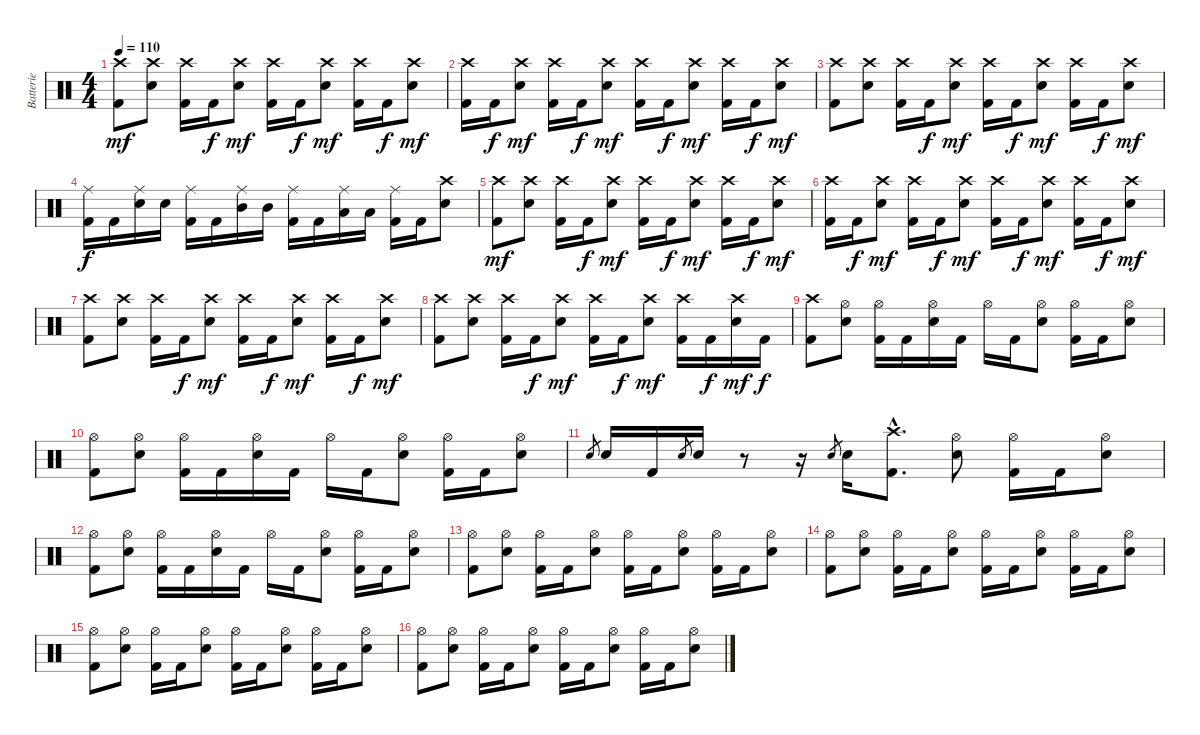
\track ("Batterie" "Batterie") {instrument percussion}
\staff {score}
\articulation defaults
\ts (4 4)
\tempo 110
\clef neutral
\ks c
("Crash high (hit)" "Kick (hit) 2").8{dy mf} ("Crash high (hit)" "Snare (hit) 2").8 ("Crash high (hit)" "Kick (hit) 2").16 "Kick (hit) 2".16{dy f} ("Crash high (hit)" "Snare (hit) 2").8{dy mf} ("Crash high (hit)" "Kick (hit) 2").16 "Kick (hit) 2".16{dy f} ("Crash high (hit)" "Snare (hit) 2").8{dy mf} ("Crash high (hit)" "Kick (hit) 2").16 "Kick (hit) 2".16{dy f} ("Crash high (hit)" "Snare (hit) 2").8{dy mf} |
("Crash high (hit)" "Kick (hit) 2").16 "Kick (hit) 2".16{dy f} ("Crash high (hit)" "Snare (hit) 2").8{dy mf} ("Crash high (hit)" "Kick (hit) 2").16 "Kick (hit) 2".16{dy f} ("Crash high (hit)" "Snare (hit) 2").8{dy mf} ("Crash high (hit)" "Kick (hit) 2").16 "Kick (hit) 2".16{dy f} ("Crash high (hit)" "Snare (hit) 2").8{dy mf} ("Crash high (hit)" "Kick (hit) 2").16 "Kick (hit) 2".16{dy f} ("Crash high (hit)" "Snare (hit) 2").8{dy mf} |
("Crash high (hit)" "Kick (hit) 2").8 ("Crash high (hit)" "Snare (hit) 2").8 ("Crash high (hit)" "Kick (hit) 2").16 "Kick (hit) 2".16{dy f} ("Crash high (hit)" "Snare (hit) 2").8{dy mf} ("Crash high (hit)" "Kick (hit) 2").16 "Kick (hit) 2".16{dy f} ("Crash high (hit)" "Snare (hit) 2").8{dy mf} ("Crash high (hit)" "Kick (hit) 2").16 "Kick (hit) 2".16{dy f} ("Crash high (hit)" "Snare (hit) 2").8{dy mf} |
("Ride (middle)" "Kick (hit) 2").16{dy f} "Kick (hit) 2".16 ("Ride (middle)" "Snare (hit) 2").16 "Snare (hit) 2".16 ("Ride (middle)" "Kick (hit) 2").16 "Kick (hit) 2".16 ("Ride (middle)" "Mid Tom (hit)").16 "Mid Tom (hit)".16 ("Ride (middle)" "Kick (hit) 2").16 "Kick (hit) 2".16 ("Ride (middle)" "Low Tom (hit)").16 "Low Tom (hit)".16 ("Ride (middle)" "Kick (hit) 2").16 "Kick (hit) 2".16 ("Crash high (hit)" "Snare (hit) 2").8 |
("Crash high (hit)" "Kick (hit) 2").8{dy mf} ("Crash high (hit)" "Snare (hit) 2").8 ("Crash high (hit)" "Kick (hit) 2").16 "Kick (hit) 2".16{dy f} ("Crash high (hit)" "Snare (hit) 2").8{dy mf} ("Crash high (hit)" "Kick (hit) 2").16 "Kick (hit) 2".16{dy f} ("Crash high (hit)" "Snare (hit) 2").8{dy mf} ("Crash high (hit)" "Kick (hit) 2").16 "Kick (hit) 2".16{dy f} ("Crash high (hit)" "Snare (hit) 2").8{dy mf} |
("Crash high (hit)" "Kick (hit) 2").16 "Kick (hit) 2".16{dy f} ("Crash high (hit)" "Snare (hit) 2").8{dy mf} ("Crash high (hit)" "Kick (hit) 2").16 "Kick (hit) 2".16{dy f} ("Crash high (hit)" "Snare (hit) 2").8{dy mf} ("Crash high (hit)" "Kick (hit) 2").16 "Kick (hit) 2".16{dy f} ("Crash high (hit)" "Snare (hit) 2").8{dy mf} ("Crash high (hit)" "Kick (hit) 2").16 "Kick (hit) 2".16{dy f} ("Crash high (hit)" "Snare (hit) 2").8{dy mf} |
("Crash high (hit)" "Kick (hit) 2").8 ("Crash high (hit)" "Snare (hit) 2").8 ("Crash high (hit)" "Kick (hit) 2").16 "Kick (hit) 2".16{dy f} ("Crash high (hit)" "Snare (hit) 2").8{dy mf} ("Crash high (hit)" "Kick (hit) 2").16 "Kick (hit) 2".16{dy f} ("Crash high (hit)" "Snare (hit) 2").8{dy mf} ("Crash high (hit)" "Kick (hit) 2").16 "Kick (hit) 2".16{dy f} ("Crash high (hit)" "Snare (hit) 2").8{dy mf} |
("Crash high (hit)" "Kick (hit) 2").8 ("Crash high (hit)" "Snare (hit) 2").8 ("Crash high (hit)" "Kick (hit) 2").16 "Kick (hit) 2".16{dy f} ("Crash high (hit)" "Snare (hit) 2").8{dy mf} ("Crash high (hit)" "Kick (hit) 2").16 "Kick (hit) 2".16{dy f} ("Crash high (hit)" "Snare (hit) 2").8{dy mf} ("Crash high (hit)" "Kick (hit) 2").16 "Kick (hit) 2".16{dy f} ("Crash high (hit)" "Snare (hit) 2").16{dy mf} "Kick (hit) 2".16{dy f} |
("Crash high (hit)" "Kick (hit) 2").8 ("Hi-Hat (open)" "Snare (hit) 2").8 ("Hi-Hat (open)" "Kick (hit) 2").16 "Kick (hit) 2".16 ("Hi-Hat (open)" "Snare (hit) 2").16 "Kick (hit) 2".16 "Hi-Hat (open)".16 "Kick (hit) 2".16 ("Hi-Hat (open)" "Snare (hit) 2").8 ("Hi-Hat (open)" "Kick (hit) 2").16 "Kick (hit) 2".16 ("Hi-Hat (open)" "Snare (hit) 2").8 |
("Hi-Hat (open)" "Kick (hit) 2").8 ("Hi-Hat (open)" "Snare (hit) 2").8 ("Hi-Hat (open)" "Kick (hit) 2").16 "Kick (hit) 2".16 ("Hi-Hat (open)" "Snare (hit) 2").16 "Kick (hit) 2".16 "Hi-Hat (open)".16 "Kick (hit) 2".16 ("Hi-Hat (open)" "Snare (hit) 2").8 ("Hi-Hat (open)" "Kick (hit) 2").16 "Kick (hit) 2".16 ("Hi-Hat (open)" "Snare (hit) 2").8 |
"Snare (hit) 2".8{gr} "Snare (hit) 2".16 "Kick (hit) 2".16 "Snare (hit) 2".8{gr} "Snare (hit) 2".16 r.8 r.16 "Snare (hit) 2".8{gr} "Snare (hit) 2".16 ("Crash high (hit)"{hac} "Kick (hit) 2"{hac}).8{d} ("Hi-Hat (open)" "Snare (hit) 2").8 ("Hi-Hat (open)" "Kick (hit) 2").16 "Kick (hit) 2".16 ("Hi-Hat (open)" "Snare (hit) 2").8 |
("Hi-Hat (open)" "Kick (hit) 2").8 ("Hi-Hat (open)" "Snare (hit) 2").8 ("Hi-Hat (open)" "Kick (hit) 2").16 "Kick (hit) 2".16 ("Hi-Hat (open)" "Snare (hit) 2").16 "Kick (hit) 2".16 "Hi-Hat (open)".16 "Kick (hit) 2".16 ("Hi-Hat (open)" "Snare (hit) 2").8 ("Hi-Hat (open)" "Kick (hit) 2").16 "Kick (hit) 2".16 ("Hi-Hat (open)" "Snare (hit) 2").8 |
("Hi-Hat (open)" "Kick (hit) 2").8 ("Hi-Hat (open)" "Snare (hit) 2").8 ("Hi-Hat (open)" "Kick (hit) 2").16 "Kick (hit) 2".16 ("Hi-Hat (open)" "Snare (hit) 2").8 ("Hi-Hat (open)" "Kick (hit) 2").16 "Kick (hit) 2".16 ("Hi-Hat (open)" "Snare (hit) 2").8 ("Hi-Hat (open)" "Kick (hit) 2").16 "Kick (hit) 2".16 ("Hi-Hat (open)" "Snare (hit) 2").8 |
("Hi-Hat (open)" "Kick (hit) 2").8 ("Hi-Hat (open)" "Snare (hit) 2").8 ("Hi-Hat (open)" "Kick (hit) 2").16 "Kick (hit) 2".16 ("Hi-Hat (open)" "Snare (hit) 2").8 ("Hi-Hat (open)" "Kick (hit) 2").16 "Kick (hit) 2".16 ("Hi-Hat (open)" "Snare (hit) 2").8 ("Hi-Hat (open)" "Kick (hit) 2").16 "Kick (hit) 2".16 ("Hi-Hat (open)" "Snare (hit) 2").8 |
("Hi-Hat (open)" "Kick (hit) 2").8 ("Hi-Hat (open)" "Snare (hit) 2").8 ("Hi-Hat (open)" "Kick (hit) 2").16 "Kick (hit) 2".16 ("Hi-Hat (open)" "Snare (hit) 2").8 ("Hi-Hat (open)" "Kick (hit) 2").16 "Kick (hit) 2".16 ("Hi-Hat (open)" "Snare (hit) 2").8 ("Hi-Hat (open)" "Kick (hit) 2").16 "Kick (hit) 2".16 ("Hi-Hat (open)" "Snare (hit) 2").8 |
("Hi-Hat (open)" "Kick (hit) 2").8 ("Hi-Hat (open)" "Snare (hit) 2").8 ("Hi-Hat (open)" "Kick (hit) 2").16 "Kick (hit) 2".16 ("Hi-Hat (open)" "Snare (hit) 2").8 ("Hi-Hat (open)" "Kick (hit) 2").16 "Kick (hit) 2".16 ("Hi-Hat (open)" "Snare (hit) 2").8 ("Hi-Hat (open)" "Kick (hit) 2").16 "Kick (hit) 2".16 ("Hi-Hat (open)" "Snare (hit) 2").8
